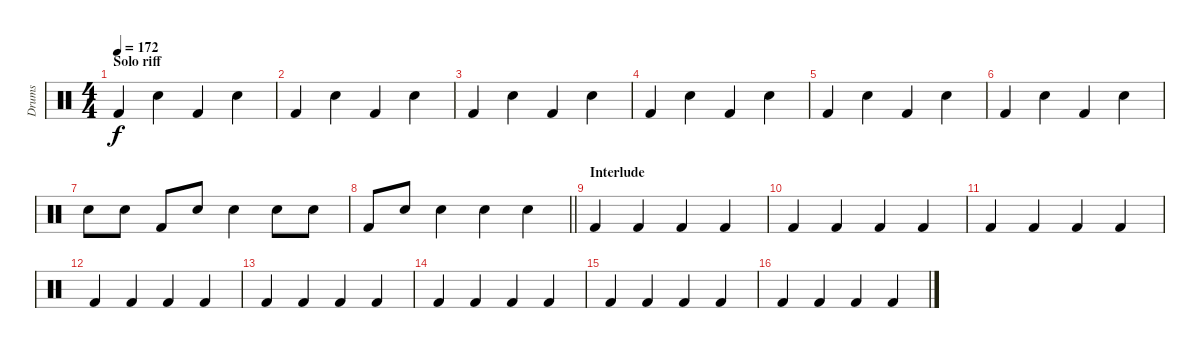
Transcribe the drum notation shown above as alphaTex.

\track ("Drums" "Drums") {instrument percussion}
\staff {score}
\articulation defaults
\ts (4 4)
\section ("" "Solo riff")
\tempo 172
\clef neutral
\ks c "Kick (hit) 2".4{dy f} "Snare (hit) 2".4 "Kick (hit) 2".4 "Snare (hit) 2".4
|
"Kick (hit) 2".4 "Snare (hit) 2".4 "Kick (hit) 2".4 "Snare (hit) 2".4 |
"Kick (hit) 2".4 "Snare (hit) 2".4 "Kick (hit) 2".4 "Snare (hit) 2".4 |
"Kick (hit) 2".4 "Snare (hit) 2".4 "Kick (hit) 2".4 "Snare (hit) 2".4 |
"Kick (hit) 2".4 "Snare (hit) 2".4 "Kick (hit) 2".4 "Snare (hit) 2".4 |
"Kick (hit) 2".4 "Snare (hit) 2".4 "Kick (hit) 2".4 "Snare (hit) 2".4 |
"Snare (hit) 2".8 "Snare (hit) 2".8 "Kick (hit) 2".8 "Snare (hit) 2".8 "Snare (hit) 2".4 "Snare (hit) 2".8 "Snare (hit) 2".8 |
\barLineRight lightlight "Kick (hit) 2".8 "Snare (hit) 2".8 "Snare (hit) 2".4 "Snare (hit) 2".4 "Snare (hit) 2".4
|
\section ("" "Interlude")
"Kick (hit) 2".4 "Kick (hit) 2".4 "Kick (hit) 2".4 "Kick (hit) 2".4 |
"Kick (hit) 2".4 "Kick (hit) 2".4 "Kick (hit) 2".4 "Kick (hit) 2".4 |
"Kick (hit) 2".4 "Kick (hit) 2".4 "Kick (hit) 2".4 "Kick (hit) 2".4 |
"Kick (hit) 2".4 "Kick (hit) 2".4 "Kick (hit) 2".4 "Kick (hit) 2".4 |
"Kick (hit) 2".4 "Kick (hit) 2".4 "Kick (hit) 2".4 "Kick (hit) 2".4 |
"Kick (hit) 2".4 "Kick (hit) 2".4 "Kick (hit) 2".4 "Kick (hit) 2".4 |
"Kick (hit) 2".4 "Kick (hit) 2".4 "Kick (hit) 2".4 "Kick (hit) 2".4 |
"Kick (hit) 2".4 "Kick (hit) 2".4 "Kick (hit) 2".4 "Kick (hit) 2".4
